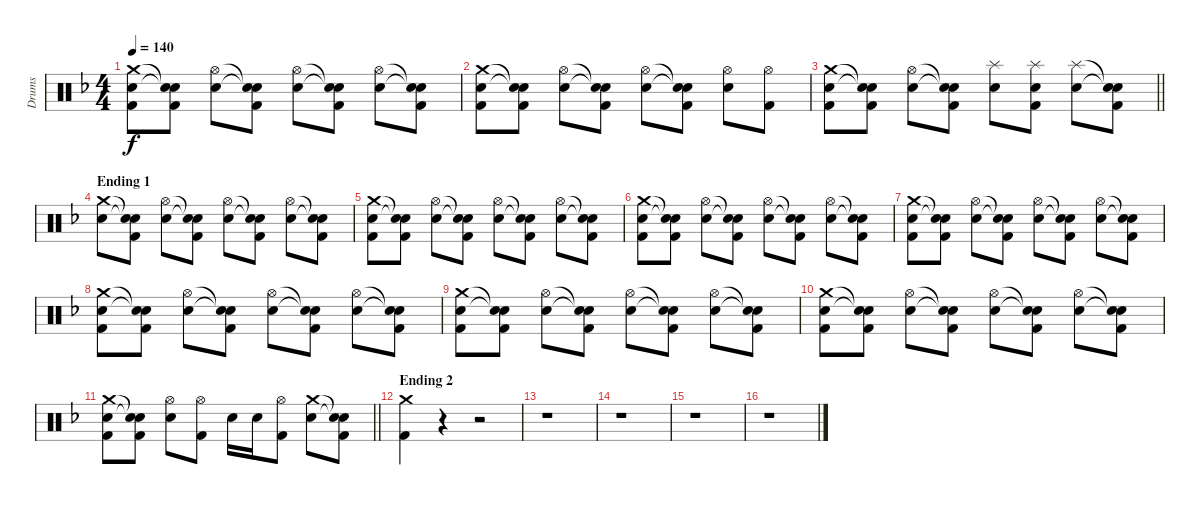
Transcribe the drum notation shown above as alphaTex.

\track ("Drums" "Drums") {instrument percussion}
\staff {score}
\articulation defaults
\ts (4 4)
\tempo 140
\clef neutral
\ks f
("Crash medium (hit)" "Electric Snare (hit)" "Kick (hit) 2").8{dy f} ("Snare (hit)"{t} "Snare (hit)"{t} "Kick (hit) 2").8 ("Hi-Hat (open)" "Electric Snare (hit)").8 ("Snare (hit)"{t} "Snare (hit)"{t} "Kick (hit) 2").8 ("Hi-Hat (open)" "Electric Snare (hit)").8 ("Snare (hit)"{t} "Snare (hit)"{t} "Kick (hit) 2").8 ("Hi-Hat (open)" "Electric Snare (hit)").8 ("Snare (hit)"{t} "Snare (hit)"{t} "Kick (hit) 2").8 |
("Crash medium (hit)" "Electric Snare (hit)" "Kick (hit) 2").8 ("Snare (hit)"{t} "Snare (hit)"{t} "Kick (hit) 2").8 ("Hi-Hat (open)" "Electric Snare (hit)").8 ("Snare (hit)"{t} "Snare (hit)"{t} "Kick (hit) 2").8 ("Hi-Hat (open)" "Electric Snare (hit)").8 ("Snare (hit)"{t} "Snare (hit)"{t} "Kick (hit) 2").8 ("Hi-Hat (open)" "Electric Snare (hit)").8 ("Hi-Hat (open)" "Kick (hit) 2").8 |
\barLineRight lightlight
("Crash medium (hit)" "Electric Snare (hit)" "Kick (hit) 2").8 ("Snare (hit)"{t} "Snare (hit)"{t} "Kick (hit) 2").8 ("Hi-Hat (open)" "Electric Snare (hit)").8 ("Snare (hit)"{t} "Snare (hit)"{t} "Kick (hit) 2").8 ("Splash (hit)" "Electric Snare (hit)").8 ("Splash (hit)" "Electric Snare (hit)" "Kick (hit) 2").8 ("Splash (hit)" "Electric Snare (hit)").8 ("Snare (hit)"{t} "Snare (hit)"{t} "Kick (hit) 2").8 |
\section ("" "Ending 1")
("Crash medium (hit)" "Electric Snare (hit)").8 ("Snare (hit)"{t} "Snare (hit)"{t} "Kick (hit) 2").8 ("Hi-Hat (open)" "Electric Snare (hit)").8 ("Snare (hit)"{t} "Snare (hit)"{t} "Kick (hit) 2").8 ("Hi-Hat (open)" "Electric Snare (hit)").8 ("Snare (hit)"{t} "Snare (hit)"{t} "Kick (hit) 2").8 ("Hi-Hat (open)" "Electric Snare (hit)").8 ("Snare (hit)"{t} "Snare (hit)"{t} "Kick (hit) 2").8 |
("Crash medium (hit)" "Electric Snare (hit)" "Kick (hit) 2").8 ("Snare (hit)"{t} "Snare (hit)"{t} "Kick (hit) 2").8 ("Hi-Hat (open)" "Electric Snare (hit)").8 ("Snare (hit)"{t} "Snare (hit)"{t} "Kick (hit) 2").8 ("Hi-Hat (open)" "Electric Snare (hit)").8 ("Snare (hit)"{t} "Snare (hit)"{t} "Kick (hit) 2").8 ("Hi-Hat (open)" "Electric Snare (hit)").8 ("Snare (hit)"{t} "Snare (hit)"{t} "Kick (hit) 2").8 |
("Crash medium (hit)" "Electric Snare (hit)" "Kick (hit) 2").8 ("Snare (hit)"{t} "Snare (hit)"{t} "Kick (hit) 2").8 ("Hi-Hat (open)" "Electric Snare (hit)").8 ("Snare (hit)"{t} "Snare (hit)"{t} "Kick (hit) 2").8 ("Hi-Hat (open)" "Electric Snare (hit)").8 ("Snare (hit)"{t} "Snare (hit)"{t} "Kick (hit) 2").8 ("Hi-Hat (open)" "Electric Snare (hit)").8 ("Snare (hit)"{t} "Snare (hit)"{t} "Kick (hit) 2").8 |
("Crash medium (hit)" "Electric Snare (hit)" "Kick (hit) 2").8 ("Snare (hit)"{t} "Snare (hit)"{t} "Kick (hit) 2").8 ("Hi-Hat (open)" "Electric Snare (hit)").8 ("Snare (hit)"{t} "Snare (hit)"{t} "Kick (hit) 2").8 ("Hi-Hat (open)" "Electric Snare (hit)").8 ("Snare (hit)"{t} "Snare (hit)"{t} "Kick (hit) 2").8 ("Hi-Hat (open)" "Electric Snare (hit)").8 ("Snare (hit)"{t} "Snare (hit)"{t} "Kick (hit) 2").8 |
("Crash medium (hit)" "Electric Snare (hit)" "Kick (hit) 2").8 ("Snare (hit)"{t} "Snare (hit)"{t} "Kick (hit) 2").8 ("Hi-Hat (open)" "Electric Snare (hit)").8 ("Snare (hit)"{t} "Snare (hit)"{t} "Kick (hit) 2").8 ("Hi-Hat (open)" "Electric Snare (hit)").8 ("Snare (hit)"{t} "Snare (hit)"{t} "Kick (hit) 2").8 ("Hi-Hat (open)" "Electric Snare (hit)").8 ("Snare (hit)"{t} "Snare (hit)"{t} "Kick (hit) 2").8 |
("Crash medium (hit)" "Electric Snare (hit)" "Kick (hit) 2").8 ("Snare (hit)"{t} "Snare (hit)"{t} "Kick (hit) 2").8 ("Hi-Hat (open)" "Electric Snare (hit)").8 ("Snare (hit)"{t} "Snare (hit)"{t} "Kick (hit) 2").8 ("Hi-Hat (open)" "Electric Snare (hit)").8 ("Snare (hit)"{t} "Snare (hit)"{t} "Kick (hit) 2").8 ("Hi-Hat (open)" "Electric Snare (hit)").8 ("Snare (hit)"{t} "Snare (hit)"{t} "Kick (hit) 2").8 |
("Crash medium (hit)" "Electric Snare (hit)" "Kick (hit) 2").8 ("Snare (hit)"{t} "Snare (hit)"{t} "Kick (hit) 2").8 ("Hi-Hat (open)" "Electric Snare (hit)").8 ("Snare (hit)"{t} "Snare (hit)"{t} "Kick (hit) 2").8 ("Hi-Hat (open)" "Electric Snare (hit)").8 ("Snare (hit)"{t} "Snare (hit)"{t} "Kick (hit) 2").8 ("Hi-Hat (open)" "Electric Snare (hit)").8 ("Snare (hit)"{t} "Snare (hit)"{t} "Kick (hit) 2").8 |
\barLineRight lightlight
("Crash medium (hit)" "Electric Snare (hit)" "Kick (hit) 2").8 ("Snare (hit)"{t} "Snare (hit)"{t} "Kick (hit) 2").8 ("Hi-Hat (open)" "Electric Snare (hit)").8 ("Hi-Hat (open)" "Kick (hit) 2").8 "Electric Snare (hit)".16 "Electric Snare (hit)".16 ("Hi-Hat (open)" "Kick (hit) 2").8 ("Crash medium (hit)" "Electric Snare (hit)").8 ("Snare (hit)"{t} "Snare (hit)"{t} "Kick (hit) 2").8 |
\section ("" "Ending 2")
("Crash medium (hit)" "Kick (hit) 2").4 r.4 r.2 |
r.1 |
r.1 |
r.1 |
r.1
